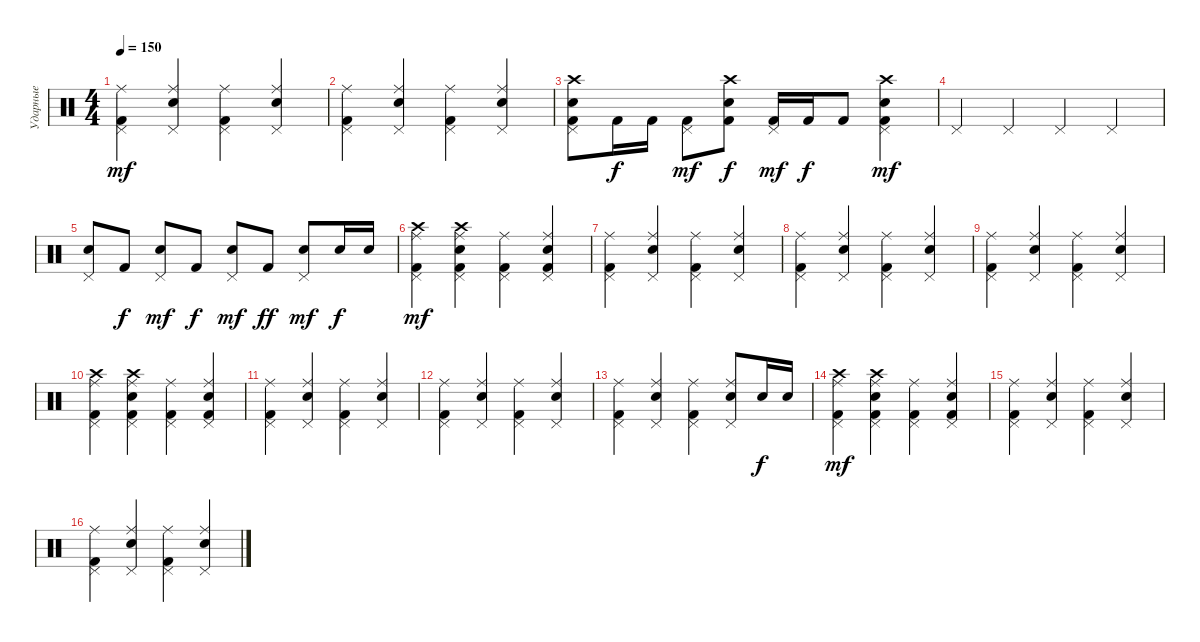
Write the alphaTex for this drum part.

\track ("Ударные" "Ударные") {instrument percussion}
\staff {score}
\articulation defaults
\ts (4 4)
\tempo 150
\clef neutral
\ks c
("Kick (hit) 2" "Pedal Hi-Hat (hit)" "Ride (middle)").4{dy mf} ("Snare (hit) 2" "Pedal Hi-Hat (hit)" "Ride (middle)").4 ("Kick (hit) 2" "Pedal Hi-Hat (hit)" "Ride (middle)").4 ("Snare (hit) 2" "Pedal Hi-Hat (hit)" "Ride (middle)").4 |
("Kick (hit) 2" "Pedal Hi-Hat (hit)" "Ride (middle)").4 ("Snare (hit) 2" "Pedal Hi-Hat (hit)" "Ride (middle)").4 ("Kick (hit) 2" "Pedal Hi-Hat (hit)" "Ride (middle)").4 ("Snare (hit) 2" "Pedal Hi-Hat (hit)" "Ride (middle)").4 |
("Kick (hit) 2" "Snare (hit) 2" "Crash high (hit)" "Pedal Hi-Hat (hit)").8 "Kick (hit) 2".16{dy f} "Kick (hit) 2".16 ("Kick (hit) 2" "Pedal Hi-Hat (hit)").8{dy mf} ("Kick (hit) 2" "Snare (hit) 2" "Crash high (hit)").8{dy f} ("Kick (hit) 2" "Pedal Hi-Hat (hit)").16{dy mf} "Kick (hit) 2".16{dy f} "Kick (hit) 2".8 ("Kick (hit) 2" "Snare (hit) 2" "Crash high (hit)" "Pedal Hi-Hat (hit)").4{dy mf} |
"Pedal Hi-Hat (hit)".4 "Pedal Hi-Hat (hit)".4 "Pedal Hi-Hat (hit)".4 "Pedal Hi-Hat (hit)".4 |
("Snare (hit) 2" "Pedal Hi-Hat (hit)").8 "Kick (hit) 2".8{dy f} ("Snare (hit) 2" "Pedal Hi-Hat (hit)").8{dy mf} "Kick (hit) 2".8{dy f} ("Snare (hit) 2" "Pedal Hi-Hat (hit)").8{dy mf} "Kick (hit) 2".8{dy ff} ("Snare (hit) 2" "Pedal Hi-Hat (hit)").8{dy mf} "Snare (hit) 2".16{dy f} "Snare (hit) 2".16 |
("Kick (hit) 2" "Crash high (hit)" "Pedal Hi-Hat (hit)" "Ride (middle)").4{dy mf} ("Kick (hit) 2" "Snare (hit) 2" "Crash high (hit)" "Pedal Hi-Hat (hit)" "Ride (middle)").4 ("Kick (hit) 2" "Pedal Hi-Hat (hit)" "Ride (middle)").4 ("Kick (hit) 2" "Snare (hit) 2" "Pedal Hi-Hat (hit)" "Ride (middle)").4 |
("Kick (hit) 2" "Pedal Hi-Hat (hit)" "Ride (middle)").4 ("Snare (hit) 2" "Pedal Hi-Hat (hit)" "Ride (middle)").4 ("Kick (hit) 2" "Pedal Hi-Hat (hit)" "Ride (middle)").4 ("Snare (hit) 2" "Pedal Hi-Hat (hit)" "Ride (middle)").4 |
("Kick (hit) 2" "Pedal Hi-Hat (hit)" "Ride (middle)").4 ("Snare (hit) 2" "Pedal Hi-Hat (hit)" "Ride (middle)").4 ("Kick (hit) 2" "Pedal Hi-Hat (hit)" "Ride (middle)").4 ("Snare (hit) 2" "Pedal Hi-Hat (hit)" "Ride (middle)").4 |
("Kick (hit) 2" "Pedal Hi-Hat (hit)" "Ride (middle)").4 ("Snare (hit) 2" "Pedal Hi-Hat (hit)" "Ride (middle)").4 ("Kick (hit) 2" "Pedal Hi-Hat (hit)" "Ride (middle)").4 ("Snare (hit) 2" "Pedal Hi-Hat (hit)" "Ride (middle)").4 |
("Kick (hit) 2" "Crash high (hit)" "Pedal Hi-Hat (hit)" "Ride (middle)").4 ("Kick (hit) 2" "Snare (hit) 2" "Crash high (hit)" "Pedal Hi-Hat (hit)" "Ride (middle)").4 ("Kick (hit) 2" "Pedal Hi-Hat (hit)" "Ride (middle)").4 ("Kick (hit) 2" "Snare (hit) 2" "Pedal Hi-Hat (hit)" "Ride (middle)").4 |
("Kick (hit) 2" "Pedal Hi-Hat (hit)" "Ride (middle)").4 ("Snare (hit) 2" "Pedal Hi-Hat (hit)" "Ride (middle)").4 ("Kick (hit) 2" "Pedal Hi-Hat (hit)" "Ride (middle)").4 ("Snare (hit) 2" "Pedal Hi-Hat (hit)" "Ride (middle)").4 |
("Kick (hit) 2" "Pedal Hi-Hat (hit)" "Ride (middle)").4 ("Snare (hit) 2" "Pedal Hi-Hat (hit)" "Ride (middle)").4 ("Kick (hit) 2" "Pedal Hi-Hat (hit)" "Ride (middle)").4 ("Snare (hit) 2" "Pedal Hi-Hat (hit)" "Ride (middle)").4 |
("Kick (hit) 2" "Pedal Hi-Hat (hit)" "Ride (middle)").4 ("Snare (hit) 2" "Pedal Hi-Hat (hit)" "Ride (middle)").4 ("Kick (hit) 2" "Pedal Hi-Hat (hit)" "Ride (middle)").4 ("Snare (hit) 2" "Pedal Hi-Hat (hit)" "Ride (middle)").8 "Snare (hit) 2".16{dy f} "Snare (hit) 2".16 |
("Kick (hit) 2" "Crash high (hit)" "Pedal Hi-Hat (hit)" "Ride (middle)").4{dy mf} ("Kick (hit) 2" "Snare (hit) 2" "Crash high (hit)" "Pedal Hi-Hat (hit)" "Ride (middle)").4 ("Kick (hit) 2" "Pedal Hi-Hat (hit)" "Ride (middle)").4 ("Kick (hit) 2" "Snare (hit) 2" "Pedal Hi-Hat (hit)" "Ride (middle)").4 |
("Kick (hit) 2" "Pedal Hi-Hat (hit)" "Ride (middle)").4 ("Snare (hit) 2" "Pedal Hi-Hat (hit)" "Ride (middle)").4 ("Kick (hit) 2" "Pedal Hi-Hat (hit)" "Ride (middle)").4 ("Snare (hit) 2" "Pedal Hi-Hat (hit)" "Ride (middle)").4 |
("Kick (hit) 2" "Pedal Hi-Hat (hit)" "Ride (middle)").4 ("Snare (hit) 2" "Pedal Hi-Hat (hit)" "Ride (middle)").4 ("Kick (hit) 2" "Pedal Hi-Hat (hit)" "Ride (middle)").4 ("Snare (hit) 2" "Pedal Hi-Hat (hit)" "Ride (middle)").4
